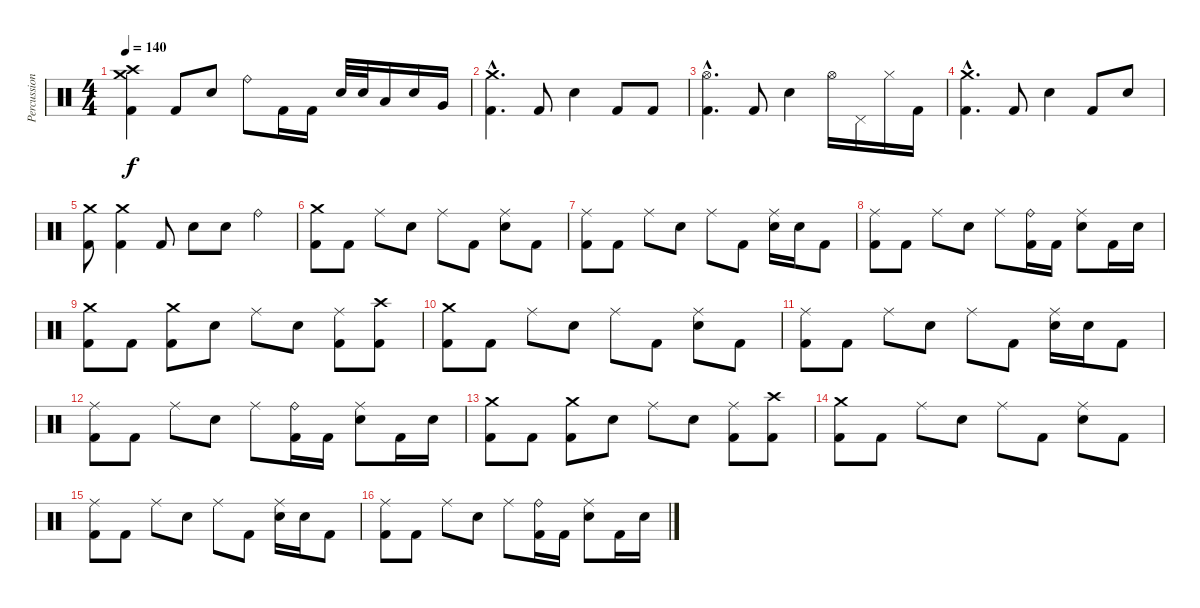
\track ("Percussion" "Percussion") {instrument percussion}
\staff {score}
\articulation defaults
\ts (4 4)
\tempo 140
\clef neutral
\ks c
("Crash medium (hit)" "Crash high (hit)" "Kick (hit) 2").4{dy f} "Kick (hit) 2".8 "Electric Snare (hit)".8 "Ride (bell)".8 "Kick (hit) 2".16 "Kick (hit) 2".16 "Electric Snare (hit)".32 "Electric Snare (hit)".32 "Low Tom (hit)".16 "Electric Snare (hit)".16 "Very Low Tom (hit)".16 |
("Crash medium (hit)"{hac} "Kick (hit) 2"{hac}).4{d} "Kick (hit) 2".8 "Electric Snare (hit)".4 "Kick (hit) 2".8 "Kick (hit) 2".8 |
("Hi-Hat (open)"{hac} "Kick (hit) 2"{hac}).4{d} "Kick (hit) 2".8 "Electric Snare (hit)".4 "Hi-Hat (open)".16 "Pedal Hi-Hat (hit)".16 "Hi-Hat (closed)".16 "Kick (hit) 2".16 |
("Crash medium (hit)"{hac} "Kick (hit) 2"{hac}).4{d} "Kick (hit) 2".8 "Electric Snare (hit)".4 "Kick (hit) 2".8 "Electric Snare (hit)".8 |
("Crash medium (hit)" "Kick (hit) 2").8 ("Crash medium (hit)" "Kick (hit) 2").4 "Kick (hit) 2".8 "Electric Snare (hit)".8 "Electric Snare (hit)".8 "Ride (bell)".4 |
("Crash medium (hit)" "Kick (hit) 2").8 "Kick (hit) 2".8 "Ride (middle)".8 "Electric Snare (hit)".8 "Ride (middle)".8 "Kick (hit) 2".8 ("Ride (middle)" "Electric Snare (hit)").8 "Kick (hit) 2".8 |
("Ride (middle)" "Kick (hit) 2").8 "Kick (hit) 2".8 "Ride (middle)".8 "Electric Snare (hit)".8 "Ride (middle)".8 "Kick (hit) 2".8 ("Ride (middle)" "Electric Snare (hit)").16 "Electric Snare (hit)".16 "Kick (hit) 2".8 |
("Ride (middle)" "Kick (hit) 2").8 "Kick (hit) 2".8 "Ride (middle)".8 "Electric Snare (hit)".8 "Ride (middle)".8 ("Ride (bell)" "Kick (hit) 2").16 "Kick (hit) 2".16 ("Ride (middle)" "Electric Snare (hit)").8 "Kick (hit) 2".16 "Electric Snare (hit)".16 |
("Crash medium (hit)" "Kick (hit) 2").8 "Kick (hit) 2".8 ("Crash medium (hit)" "Kick (hit) 2").8 "Electric Snare (hit)".8 "Ride (middle)".8 "Electric Snare (hit)".8 ("Ride (middle)" "Kick (hit) 2").8 ("Crash high (hit)" "Kick (hit) 2").8 |
("Crash medium (hit)" "Kick (hit) 2").8 "Kick (hit) 2".8 "Ride (middle)".8 "Electric Snare (hit)".8 "Ride (middle)".8 "Kick (hit) 2".8 ("Ride (middle)" "Electric Snare (hit)").8 "Kick (hit) 2".8 |
("Ride (middle)" "Kick (hit) 2").8 "Kick (hit) 2".8 "Ride (middle)".8 "Electric Snare (hit)".8 "Ride (middle)".8 "Kick (hit) 2".8 ("Ride (middle)" "Electric Snare (hit)").16 "Electric Snare (hit)".16 "Kick (hit) 2".8 |
("Ride (middle)" "Kick (hit) 2").8 "Kick (hit) 2".8 "Ride (middle)".8 "Electric Snare (hit)".8 "Ride (middle)".8 ("Ride (bell)" "Kick (hit) 2").16 "Kick (hit) 2".16 ("Ride (middle)" "Electric Snare (hit)").8 "Kick (hit) 2".16 "Electric Snare (hit)".16 |
("Crash medium (hit)" "Kick (hit) 2").8 "Kick (hit) 2".8 ("Crash medium (hit)" "Kick (hit) 2").8 "Electric Snare (hit)".8 "Ride (middle)".8 "Electric Snare (hit)".8 ("Ride (middle)" "Kick (hit) 2").8 ("Crash high (hit)" "Kick (hit) 2").8 |
("Crash medium (hit)" "Kick (hit) 2").8 "Kick (hit) 2".8 "Ride (middle)".8 "Electric Snare (hit)".8 "Ride (middle)".8 "Kick (hit) 2".8 ("Ride (middle)" "Electric Snare (hit)").8 "Kick (hit) 2".8 |
("Ride (middle)" "Kick (hit) 2").8 "Kick (hit) 2".8 "Ride (middle)".8 "Electric Snare (hit)".8 "Ride (middle)".8 "Kick (hit) 2".8 ("Ride (middle)" "Electric Snare (hit)").16 "Electric Snare (hit)".16 "Kick (hit) 2".8 |
("Ride (middle)" "Kick (hit) 2").8 "Kick (hit) 2".8 "Ride (middle)".8 "Electric Snare (hit)".8 "Ride (middle)".8 ("Ride (bell)" "Kick (hit) 2").16 "Kick (hit) 2".16 ("Ride (middle)" "Electric Snare (hit)").8 "Kick (hit) 2".16 "Electric Snare (hit)".16
